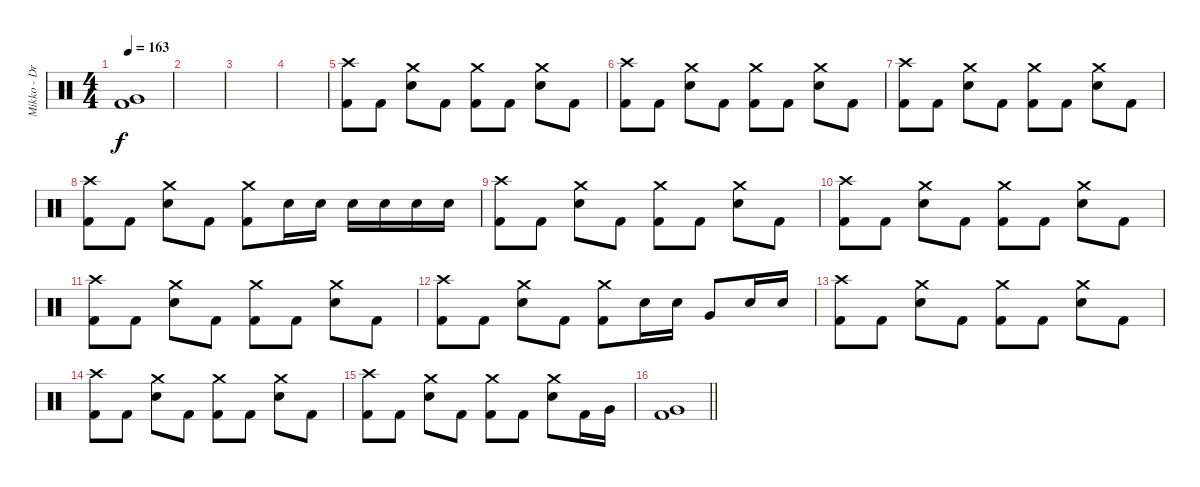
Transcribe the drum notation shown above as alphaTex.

\track ("Mikko - Drums" "Mikko - Dr") {instrument percussion}
\staff {score}
\articulation defaults
\ts (4 4)
\tempo 163
\clef neutral
\ks c
("Very Low Tom (hit)" "Kick (hit) 2").1{dy f} |
|
|
|
("Crash high (hit)" "Kick (hit) 2").8 "Kick (hit) 2".8 ("Crash medium (hit)" "Snare (hit) 2").8 "Kick (hit) 2".8 ("Crash medium (hit)" "Kick (hit) 2").8 "Kick (hit) 2".8 ("Crash medium (hit)" "Snare (hit) 2").8 "Kick (hit) 2".8 |
("Crash high (hit)" "Kick (hit) 2").8 "Kick (hit) 2".8 ("Crash medium (hit)" "Snare (hit) 2").8 "Kick (hit) 2".8 ("Crash medium (hit)" "Kick (hit) 2").8 "Kick (hit) 2".8 ("Crash medium (hit)" "Snare (hit) 2").8 "Kick (hit) 2".8 |
("Crash high (hit)" "Kick (hit) 2").8 "Kick (hit) 2".8 ("Crash medium (hit)" "Snare (hit) 2").8 "Kick (hit) 2".8 ("Crash medium (hit)" "Kick (hit) 2").8 "Kick (hit) 2".8 ("Crash medium (hit)" "Snare (hit) 2").8 "Kick (hit) 2".8 |
("Crash high (hit)" "Kick (hit) 2").8 "Kick (hit) 2".8 ("Crash medium (hit)" "Snare (hit) 2").8 "Kick (hit) 2".8 ("Crash medium (hit)" "Kick (hit) 2").8 "Snare (hit) 2".16 "Snare (hit) 2".16 "Snare (hit) 2".16 "Snare (hit) 2".16 "Snare (hit) 2".16 "Snare (hit) 2".16 |
("Crash high (hit)" "Kick (hit) 2").8 "Kick (hit) 2".8 ("Crash medium (hit)" "Snare (hit) 2").8 "Kick (hit) 2".8 ("Crash medium (hit)" "Kick (hit) 2").8 "Kick (hit) 2".8 ("Crash medium (hit)" "Snare (hit) 2").8 "Kick (hit) 2".8 |
("Crash high (hit)" "Kick (hit) 2").8 "Kick (hit) 2".8 ("Crash medium (hit)" "Snare (hit) 2").8 "Kick (hit) 2".8 ("Crash medium (hit)" "Kick (hit) 2").8 "Kick (hit) 2".8 ("Crash medium (hit)" "Snare (hit) 2").8 "Kick (hit) 2".8 |
("Crash high (hit)" "Kick (hit) 2").8 "Kick (hit) 2".8 ("Crash medium (hit)" "Snare (hit) 2").8 "Kick (hit) 2".8 ("Crash medium (hit)" "Kick (hit) 2").8 "Kick (hit) 2".8 ("Crash medium (hit)" "Snare (hit) 2").8 "Kick (hit) 2".8 |
("Crash high (hit)" "Kick (hit) 2").8 "Kick (hit) 2".8 ("Crash medium (hit)" "Snare (hit) 2").8 "Kick (hit) 2".8 ("Crash medium (hit)" "Kick (hit) 2").8 "Snare (hit) 2".16 "Snare (hit) 2".16 "Very Low Tom (hit)".8 "Snare (hit) 2".16 "Snare (hit) 2".16 |
("Crash high (hit)" "Kick (hit) 2").8 "Kick (hit) 2".8 ("Crash medium (hit)" "Snare (hit) 2").8 "Kick (hit) 2".8 ("Crash medium (hit)" "Kick (hit) 2").8 "Kick (hit) 2".8 ("Crash medium (hit)" "Snare (hit) 2").8 "Kick (hit) 2".8 |
("Crash high (hit)" "Kick (hit) 2").8 "Kick (hit) 2".8 ("Crash medium (hit)" "Snare (hit) 2").8 "Kick (hit) 2".8 ("Crash medium (hit)" "Kick (hit) 2").8 "Kick (hit) 2".8 ("Crash medium (hit)" "Snare (hit) 2").8 "Kick (hit) 2".8 |
("Crash high (hit)" "Kick (hit) 2").8 "Kick (hit) 2".8 ("Crash medium (hit)" "Snare (hit) 2").8 "Kick (hit) 2".8 ("Crash medium (hit)" "Kick (hit) 2").8 "Kick (hit) 2".8 ("Crash medium (hit)" "Snare (hit) 2").8 "Kick (hit) 2".16 "Very Low Tom (hit)".16 |
\barLineRight lightlight
("Very Low Tom (hit)" "Kick (hit) 2").1
